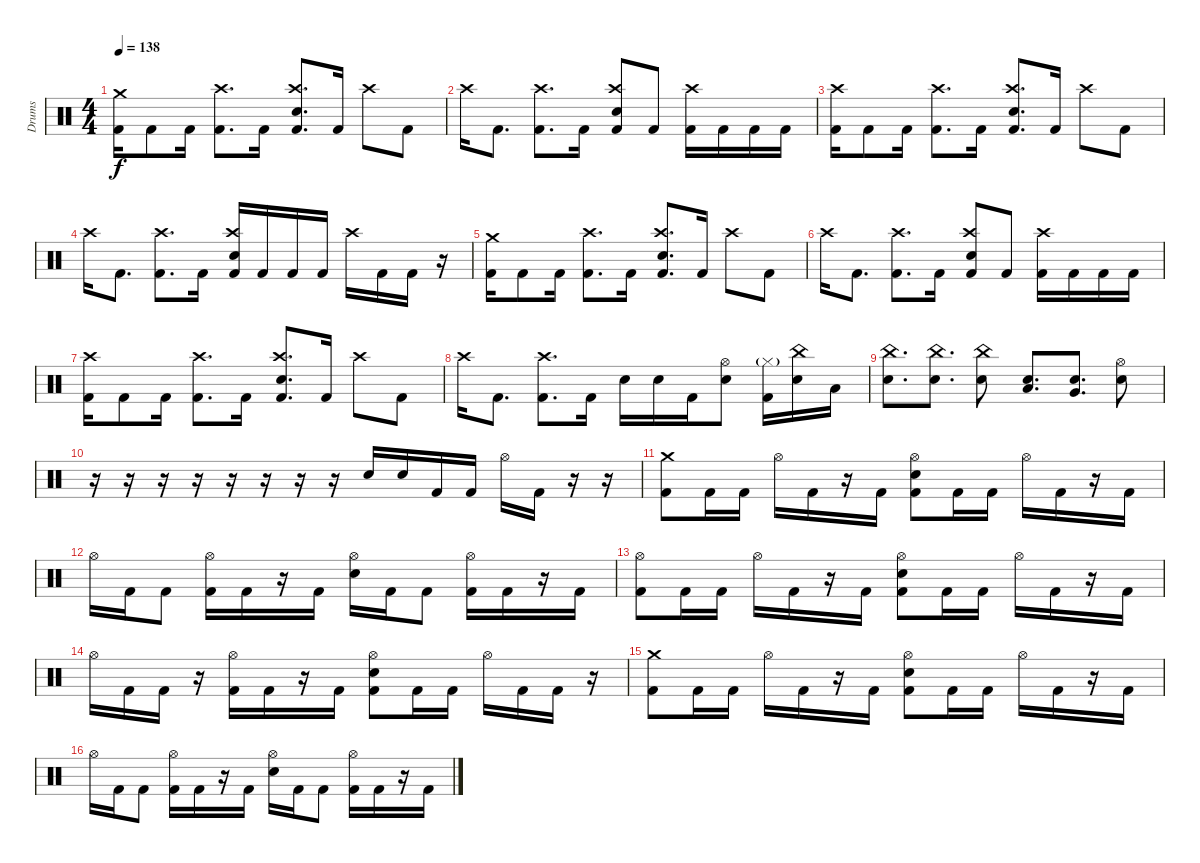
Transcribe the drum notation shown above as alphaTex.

\track ("Drums" "Drums") {instrument percussion}
\staff {score}
\articulation defaults
\ts (4 4)
\tempo 138
\clef neutral
\ks c
("Crash medium (hit)" "Kick (hit) 2").16{dy f} "Kick (hit) 2".8 "Kick (hit) 2".16 ("Crash high (hit)" "Kick (hit) 2").8{d} "Kick (hit) 2".16 ("Crash high (hit)" "Electric Snare (hit)" "Kick (hit) 2").8{d} "Kick (hit) 2".16 "Crash high (hit)".8 "Kick (hit) 2".8 |
"Crash high (hit)".16 "Kick (hit) 2".8{d} ("Crash high (hit)" "Kick (hit) 2").8{d} "Kick (hit) 2".16 ("Crash high (hit)" "Electric Snare (hit)" "Kick (hit) 2").8 "Kick (hit) 2".8 ("Crash high (hit)" "Kick (hit) 2").16 "Kick (hit) 2".16 "Kick (hit) 2".16 "Kick (hit) 2".16 |
("Crash high (hit)" "Kick (hit) 2").16 "Kick (hit) 2".8 "Kick (hit) 2".16 ("Crash high (hit)" "Kick (hit) 2").8{d} "Kick (hit) 2".16 ("Crash high (hit)" "Electric Snare (hit)" "Kick (hit) 2").8{d} "Kick (hit) 2".16 "Crash high (hit)".8 "Kick (hit) 2".8 |
"Crash high (hit)".16 "Kick (hit) 2".8{d} ("Crash high (hit)" "Kick (hit) 2").8{d} "Kick (hit) 2".16 ("Crash high (hit)" "Electric Snare (hit)" "Kick (hit) 2").16 "Kick (hit) 2".16 "Kick (hit) 2".16 "Kick (hit) 2".16 "Crash high (hit)".16 "Kick (hit) 2".16 "Kick (hit) 2".16 r.16 |
("Crash medium (hit)" "Kick (hit) 2").16 "Kick (hit) 2".8 "Kick (hit) 2".16 ("Crash high (hit)" "Kick (hit) 2").8{d} "Kick (hit) 2".16 ("Crash high (hit)" "Electric Snare (hit)" "Kick (hit) 2").8{d} "Kick (hit) 2".16 "Crash high (hit)".8 "Kick (hit) 2".8 |
"Crash high (hit)".16 "Kick (hit) 2".8{d} ("Crash high (hit)" "Kick (hit) 2").8{d} "Kick (hit) 2".16 ("Crash high (hit)" "Electric Snare (hit)" "Kick (hit) 2").8 "Kick (hit) 2".8 ("Crash high (hit)" "Kick (hit) 2").16 "Kick (hit) 2".16 "Kick (hit) 2".16 "Kick (hit) 2".16 |
("Crash high (hit)" "Kick (hit) 2").16 "Kick (hit) 2".8 "Kick (hit) 2".16 ("Crash high (hit)" "Kick (hit) 2").8{d} "Kick (hit) 2".16 ("Crash high (hit)" "Electric Snare (hit)" "Kick (hit) 2").8{d} "Kick (hit) 2".16 "Crash high (hit)".8 "Kick (hit) 2".8 |
"Crash high (hit)".16 "Kick (hit) 2".8{d} ("Crash high (hit)" "Kick (hit) 2").8{d} "Kick (hit) 2".16 "Electric Snare (hit)".16 "Electric Snare (hit)".16 "Kick (hit) 2".16 ("Hi-Hat (open)" "Electric Snare (hit)").8 ("Hi-Hat (closed)"{g} "Kick (hit) 2").16 ("China (hit)" "Electric Snare (hit)").16 "Low Floor Tom (hit)".16 |
("China (hit)" "Electric Snare (hit)").8{d} ("China (hit)" "Electric Snare (hit)").8{d} ("China (hit)" "Electric Snare (hit)").8 ("Low Tom (hit)" "Electric Snare (hit)").8{d} ("Very Low Tom (hit)" "Electric Snare (hit)").8{d} ("Hi-Hat (open)" "Electric Snare (hit)").8 |
r.16 r.16 r.16 r.16 r.16 r.16 r.16 r.16 "Electric Snare (hit)".16 "Electric Snare (hit)".16 "Kick (hit) 2".16 "Kick (hit) 2".16 "Hi-Hat (open)".16 "Kick (hit) 2".16 r.16 r.16 |
("Crash medium (hit)" "Kick (hit) 2").8 "Kick (hit) 2".16 "Kick (hit) 2".16 "Hi-Hat (open)".16 "Kick (hit) 2".16 r.16 "Kick (hit) 2".16 ("Hi-Hat (open)" "Electric Snare (hit)" "Kick (hit) 2").8 "Kick (hit) 2".16 "Kick (hit) 2".16 "Hi-Hat (open)".16 "Kick (hit) 2".16 r.16 "Kick (hit) 2".16 |
"Hi-Hat (open)".16 "Kick (hit) 2".16 "Kick (hit) 2".8 ("Hi-Hat (open)" "Kick (hit) 2").16 "Kick (hit) 2".16 r.16 "Kick (hit) 2".16 ("Hi-Hat (open)" "Electric Snare (hit)").16 "Kick (hit) 2".16 "Kick (hit) 2".8 ("Hi-Hat (open)" "Kick (hit) 2").16 "Kick (hit) 2".16 r.16 "Kick (hit) 2".16 |
("Hi-Hat (open)" "Kick (hit) 2").8 "Kick (hit) 2".16 "Kick (hit) 2".16 "Hi-Hat (open)".16 "Kick (hit) 2".16 r.16 "Kick (hit) 2".16 ("Hi-Hat (open)" "Electric Snare (hit)" "Kick (hit) 2").8 "Kick (hit) 2".16 "Kick (hit) 2".16 "Hi-Hat (open)".16 "Kick (hit) 2".16 r.16 "Kick (hit) 2".16 |
"Hi-Hat (open)".16 "Kick (hit) 2".16 "Kick (hit) 2".16 r.16 ("Hi-Hat (open)" "Kick (hit) 2").16 "Kick (hit) 2".16 r.16 "Kick (hit) 2".16 ("Hi-Hat (open)" "Electric Snare (hit)" "Kick (hit) 2").8 "Kick (hit) 2".16 "Kick (hit) 2".16 "Hi-Hat (open)".16 "Kick (hit) 2".16 "Kick (hit) 2".16 r.16 |
("Crash medium (hit)" "Kick (hit) 2").8 "Kick (hit) 2".16 "Kick (hit) 2".16 "Hi-Hat (open)".16 "Kick (hit) 2".16 r.16 "Kick (hit) 2".16 ("Hi-Hat (open)" "Electric Snare (hit)" "Kick (hit) 2").8 "Kick (hit) 2".16 "Kick (hit) 2".16 "Hi-Hat (open)".16 "Kick (hit) 2".16 r.16 "Kick (hit) 2".16 |
"Hi-Hat (open)".16 "Kick (hit) 2".16 "Kick (hit) 2".8 ("Hi-Hat (open)" "Kick (hit) 2").16 "Kick (hit) 2".16 r.16 "Kick (hit) 2".16 ("Hi-Hat (open)" "Electric Snare (hit)").16 "Kick (hit) 2".16 "Kick (hit) 2".8 ("Hi-Hat (open)" "Kick (hit) 2").16 "Kick (hit) 2".16 r.16 "Kick (hit) 2".16
